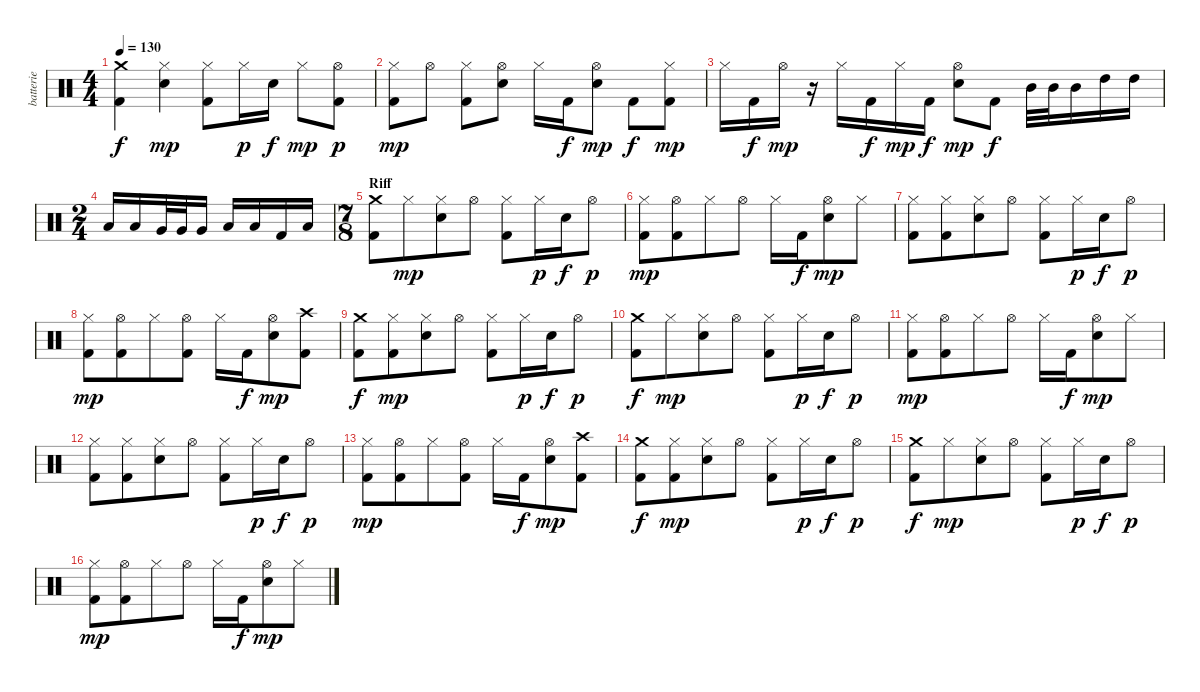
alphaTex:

\track ("batterie" "batterie") {instrument percussion}
\staff {score}
\articulation defaults
\ts (4 4)
\tempo 130
\clef neutral
\ks c
("Crash medium (hit)" "Kick (hit) 2").4{dy f} ("Hi-Hat (closed)" "Electric Snare (hit)").4{dy mp} ("Hi-Hat (closed)" "Kick (hit) 2").8 "Hi-Hat (closed)".16{dy p} "Electric Snare (hit)".16{dy f} "Hi-Hat (closed)".8{dy mp} ("Hi-Hat (open)" "Kick (hit) 2").8{dy p} |
("Hi-Hat (closed)" "Kick (hit) 2").8{dy mp} "Hi-Hat (open)".8 ("Hi-Hat (closed)" "Kick (hit) 2").8 ("Hi-Hat (open)" "Electric Snare (hit)").8 "Hi-Hat (closed)".16 "Kick (hit) 2".16{dy f} ("Hi-Hat (open)" "Electric Snare (hit)").8{dy mp} "Kick (hit) 2".8{dy f} ("Hi-Hat (closed)" "Kick (hit) 2").8{dy mp} |
"Hi-Hat (closed)".16 "Kick (hit) 2".16{dy f} "Hi-Hat (open)".16{dy mp} r.16 "Hi-Hat (closed)".16 "Kick (hit) 2".16{dy f} "Hi-Hat (closed)".16{dy mp} "Kick (hit) 2".16{dy f} ("Hi-Hat (open)" "Electric Snare (hit)").8{dy mp} "Kick (hit) 2".8{dy f} "Mid Tom (hit)".32 "Mid Tom (hit)".32 "Mid Tom (hit)".16 "High Tom (hit)".16 "High Tom (hit)".16 |
\ts (2 4)
"Low Tom (hit)".16 "Low Tom (hit)".16 "Very Low Tom (hit)".32 "Very Low Tom (hit)".32 "Very Low Tom (hit)".16 "Low Floor Tom (hit)".16 "Low Floor Tom (hit)".16 "Kick (hit) 2".16 "Low Floor Tom (hit)".16 |
\ts (7 8)
\section ("" "Riff")
("Crash medium (hit)" "Kick (hit) 2").8 "Hi-Hat (closed)".8{dy mp} ("Hi-Hat (closed)" "Electric Snare (hit)").8 "Hi-Hat (open)".8 ("Hi-Hat (closed)" "Kick (hit) 2").8 "Hi-Hat (closed)".16{dy p} "Electric Snare (hit)".16{dy f} "Hi-Hat (open)".8{dy p} |
("Hi-Hat (closed)" "Kick (hit) 2").8{dy mp} ("Hi-Hat (open)" "Kick (hit) 2").8 "Hi-Hat (closed)".8 "Hi-Hat (open)".8 "Hi-Hat (closed)".16 "Kick (hit) 2".16{dy f} ("Hi-Hat (open)" "Electric Snare (hit)").8{dy mp} "Hi-Hat (closed)".8 |
("Hi-Hat (closed)" "Kick (hit) 2").8 ("Hi-Hat (closed)" "Kick (hit) 2").8 ("Hi-Hat (closed)" "Electric Snare (hit)").8 "Hi-Hat (open)".8 ("Hi-Hat (closed)" "Kick (hit) 2").8 "Hi-Hat (closed)".16{dy p} "Electric Snare (hit)".16{dy f} "Hi-Hat (open)".8{dy p} |
("Hi-Hat (closed)" "Kick (hit) 2").8{dy mp} ("Hi-Hat (open)" "Kick (hit) 2").8 "Hi-Hat (closed)".8 ("Hi-Hat (open)" "Kick (hit) 2").8 "Hi-Hat (closed)".16 "Kick (hit) 2".16{dy f} ("Hi-Hat (open)" "Electric Snare (hit)").8{dy mp} ("Crash high (hit)" "Kick (hit) 2").8 |
("Crash medium (hit)" "Kick (hit) 2").8{dy f} ("Hi-Hat (closed)" "Kick (hit) 2").8{dy mp} ("Hi-Hat (closed)" "Electric Snare (hit)").8 "Hi-Hat (open)".8 ("Hi-Hat (closed)" "Kick (hit) 2").8 "Hi-Hat (closed)".16{dy p} "Electric Snare (hit)".16{dy f} "Hi-Hat (open)".8{dy p} |
("Crash medium (hit)" "Kick (hit) 2").8{dy f} "Hi-Hat (closed)".8{dy mp} ("Hi-Hat (closed)" "Electric Snare (hit)").8 "Hi-Hat (open)".8 ("Hi-Hat (closed)" "Kick (hit) 2").8 "Hi-Hat (closed)".16{dy p} "Electric Snare (hit)".16{dy f} "Hi-Hat (open)".8{dy p} |
("Hi-Hat (closed)" "Kick (hit) 2").8{dy mp} ("Hi-Hat (open)" "Kick (hit) 2").8 "Hi-Hat (closed)".8 "Hi-Hat (open)".8 "Hi-Hat (closed)".16 "Kick (hit) 2".16{dy f} ("Hi-Hat (open)" "Electric Snare (hit)").8{dy mp} "Hi-Hat (closed)".8 |
("Hi-Hat (closed)" "Kick (hit) 2").8 ("Hi-Hat (closed)" "Kick (hit) 2").8 ("Hi-Hat (closed)" "Electric Snare (hit)").8 "Hi-Hat (open)".8 ("Hi-Hat (closed)" "Kick (hit) 2").8 "Hi-Hat (closed)".16{dy p} "Electric Snare (hit)".16{dy f} "Hi-Hat (open)".8{dy p} |
("Hi-Hat (closed)" "Kick (hit) 2").8{dy mp} ("Hi-Hat (open)" "Kick (hit) 2").8 "Hi-Hat (closed)".8 ("Hi-Hat (open)" "Kick (hit) 2").8 "Hi-Hat (closed)".16 "Kick (hit) 2".16{dy f} ("Hi-Hat (open)" "Electric Snare (hit)").8{dy mp} ("Crash high (hit)" "Kick (hit) 2").8 |
("Crash medium (hit)" "Kick (hit) 2").8{dy f} ("Hi-Hat (closed)" "Kick (hit) 2").8{dy mp} ("Hi-Hat (closed)" "Electric Snare (hit)").8 "Hi-Hat (open)".8 ("Hi-Hat (closed)" "Kick (hit) 2").8 "Hi-Hat (closed)".16{dy p} "Electric Snare (hit)".16{dy f} "Hi-Hat (open)".8{dy p} |
("Crash medium (hit)" "Kick (hit) 2").8{dy f} "Hi-Hat (closed)".8{dy mp} ("Hi-Hat (closed)" "Electric Snare (hit)").8 "Hi-Hat (open)".8 ("Hi-Hat (closed)" "Kick (hit) 2").8 "Hi-Hat (closed)".16{dy p} "Electric Snare (hit)".16{dy f} "Hi-Hat (open)".8{dy p} |
("Hi-Hat (closed)" "Kick (hit) 2").8{dy mp} ("Hi-Hat (open)" "Kick (hit) 2").8 "Hi-Hat (closed)".8 "Hi-Hat (open)".8 "Hi-Hat (closed)".16 "Kick (hit) 2".16{dy f} ("Hi-Hat (open)" "Electric Snare (hit)").8{dy mp} "Hi-Hat (closed)".8
